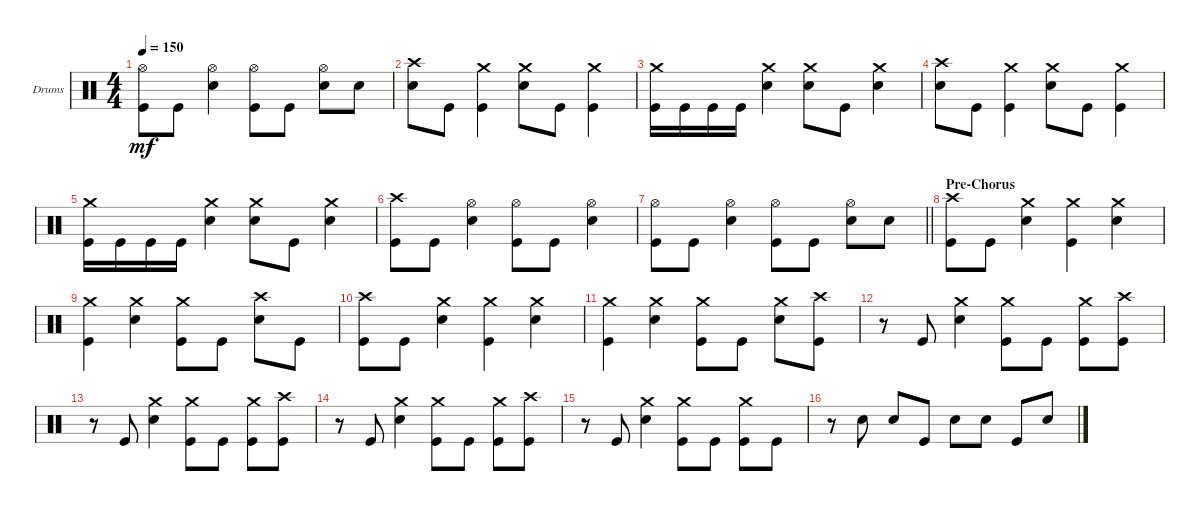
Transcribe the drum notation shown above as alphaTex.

\defaultSystemsLayout 4
\bracketExtendMode groupsimilarinstruments
\firstSystemTrackNameOrientation horizontal
\otherSystemsTrackNameOrientation horizontal
\track ("Drums" "Drums") {instrument percussion}
\staff {score}
\articulation defaults
\ts (4 4)
\tempo 150
\clef neutral
\ks c
("Kick (hit)" "Hi-Hat (open)").8{dy mf} "Kick (hit)".8 ("Snare (hit) 2" "Hi-Hat (open)").4 ("Kick (hit)" "Hi-Hat (open)").8 "Kick (hit)".8 ("Snare (hit) 2" "Hi-Hat (open)").8 "Snare (hit) 2".8 |
("Crash high (hit)" "Snare (hit) 2").8 "Kick (hit)".8 ("Crash medium (hit)" "Kick (hit)").4 ("Crash medium (hit)" "Snare (hit) 2").8 "Kick (hit)".8 ("Crash medium (hit)" "Kick (hit)").4 |
("Kick (hit)" "Crash medium (hit)").16 "Kick (hit)".16 "Kick (hit)".16 "Kick (hit)".16 ("Snare (hit) 2" "Crash medium (hit)").4 ("Crash medium (hit)" "Snare (hit) 2").8 "Kick (hit)".8 ("Snare (hit) 2" "Crash medium (hit)").4 |
("Crash high (hit)" "Snare (hit) 2").8 "Kick (hit)".8 ("Crash medium (hit)" "Kick (hit)").4 ("Crash medium (hit)" "Snare (hit) 2").8 "Kick (hit)".8 ("Crash medium (hit)" "Kick (hit)").4 |
("Kick (hit)" "Crash medium (hit)").16 "Kick (hit)".16 "Kick (hit)".16 "Kick (hit)".16 ("Snare (hit) 2" "Crash medium (hit)").4 ("Crash medium (hit)" "Snare (hit) 2").8 "Kick (hit)".8 ("Snare (hit) 2" "Crash medium (hit)").4 |
("Kick (hit)" "Crash high (hit)").8 "Kick (hit)".8 ("Snare (hit) 2" "Hi-Hat (open)").4 ("Kick (hit)" "Hi-Hat (open)").8 "Kick (hit)".8 ("Snare (hit) 2" "Hi-Hat (open)").4 |
\barLineRight lightlight
("Kick (hit)" "Hi-Hat (open)").8 "Kick (hit)".8 ("Snare (hit) 2" "Hi-Hat (open)").4 ("Kick (hit)" "Hi-Hat (open)").8 "Kick (hit)".8 ("Snare (hit) 2" "Hi-Hat (open)").8 "Snare (hit) 2".8 |
\section ("" "Pre-Chorus")
("Kick (hit)" "Crash high (hit)").8 "Kick (hit)".8 ("Snare (hit) 2" "Crash medium (hit)").4 ("Kick (hit)" "Crash medium (hit)").4 ("Snare (hit) 2" "Crash medium (hit)").4 |
("Kick (hit)" "Crash medium (hit)").4 ("Snare (hit) 2" "Crash medium (hit)").4 ("Kick (hit)" "Crash medium (hit)").8 "Kick (hit)".8 ("Snare (hit) 2" "Crash high (hit)").8 "Kick (hit)".8 |
("Kick (hit)" "Crash high (hit)").8 "Kick (hit)".8 ("Snare (hit) 2" "Crash medium (hit)").4 ("Kick (hit)" "Crash medium (hit)").4 ("Snare (hit) 2" "Crash medium (hit)").4 |
("Kick (hit)" "Crash medium (hit)").4 ("Snare (hit) 2" "Crash medium (hit)").4 ("Kick (hit)" "Crash medium (hit)").8 "Kick (hit)".8 ("Snare (hit) 2" "Crash medium (hit)").8 ("Kick (hit)" "Crash high (hit)").8 |
r.8 "Kick (hit)".8 ("Snare (hit) 2" "Crash medium (hit)").4 ("Kick (hit)" "Crash medium (hit)").8 "Kick (hit)".8 ("Kick (hit)" "Crash medium (hit)").8 ("Kick (hit)" "Crash high (hit)").8 |
r.8 "Kick (hit)".8 ("Snare (hit) 2" "Crash medium (hit)").4 ("Kick (hit)" "Crash medium (hit)").8 "Kick (hit)".8 ("Kick (hit)" "Crash medium (hit)").8 ("Kick (hit)" "Crash high (hit)").8 |
r.8 "Kick (hit)".8 ("Snare (hit) 2" "Crash medium (hit)").4 ("Kick (hit)" "Crash medium (hit)").8 "Kick (hit)".8 ("Kick (hit)" "Crash medium (hit)").8 ("Kick (hit)" "Crash high (hit)").8 |
r.8 "Kick (hit)".8 ("Snare (hit) 2" "Crash medium (hit)").4 ("Kick (hit)" "Crash medium (hit)").8 "Kick (hit)".8 ("Kick (hit)" "Crash medium (hit)").8 "Kick (hit)".8 |
r.8 "Snare (hit) 2".8 "Snare (hit) 2".8 "Kick (hit)".8 "Snare (hit) 2".8 "Snare (hit) 2".8 "Kick (hit)".8 "Snare (hit) 2".8
